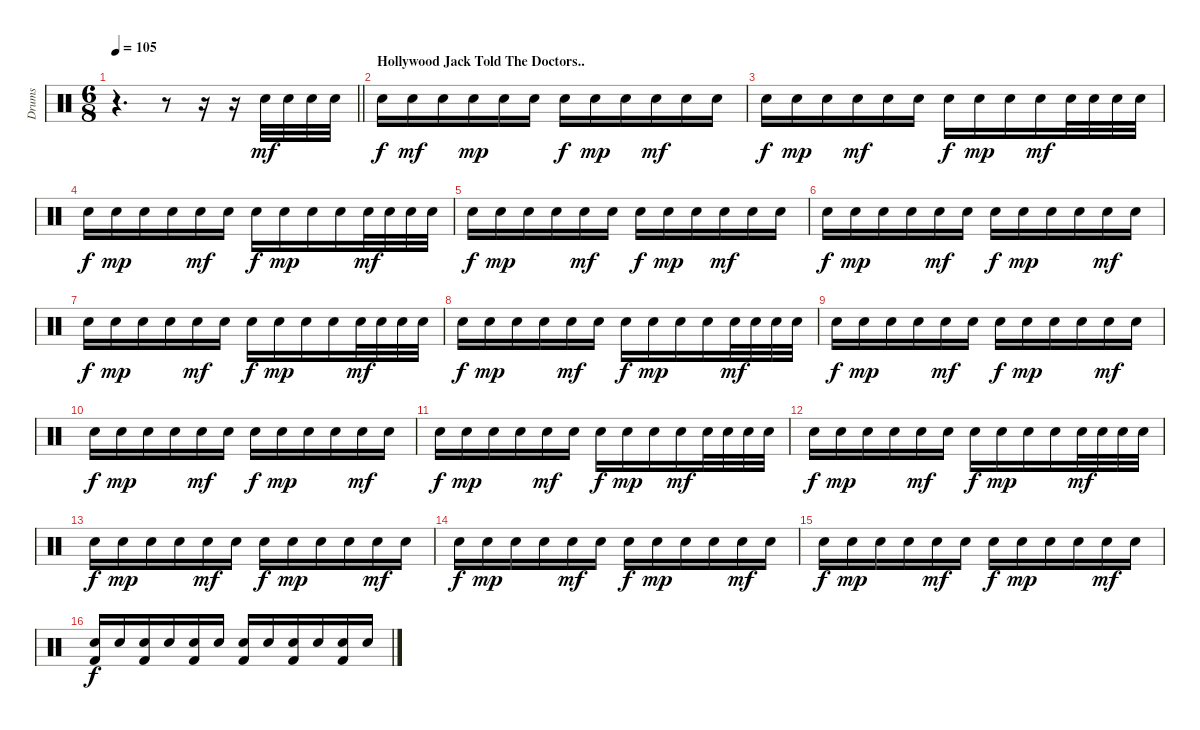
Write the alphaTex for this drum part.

\track ("Drums" "Drums") {instrument percussion}
\staff {score}
\articulation defaults
\ts (6 8)
\tempo 105
\clef neutral
\barLineRight lightlight
\ks c
r.4{d dy f} r.8 r.16 r.16 "Electric Snare (hit)".32{dy mf} "Electric Snare (hit)".32 "Electric Snare (hit)".32 "Electric Snare (hit)".32 |
\section ("" "Hollywood Jack Told The Doctors..")
"Electric Snare (hit)".16{dy f volume 7} "Electric Snare (hit)".16{dy mf} "Electric Snare (hit)".16 "Electric Snare (hit)".16{dy mp} "Electric Snare (hit)".16 "Electric Snare (hit)".16 "Electric Snare (hit)".16{dy f} "Electric Snare (hit)".16{dy mp} "Electric Snare (hit)".16 "Electric Snare (hit)".16{dy mf} "Electric Snare (hit)".16 "Electric Snare (hit)".16 |
"Electric Snare (hit)".16{dy f} "Electric Snare (hit)".16{dy mp} "Electric Snare (hit)".16 "Electric Snare (hit)".16{dy mf} "Electric Snare (hit)".16 "Electric Snare (hit)".16 "Electric Snare (hit)".16{dy f} "Electric Snare (hit)".16{dy mp} "Electric Snare (hit)".16 "Electric Snare (hit)".16{dy mf} "Electric Snare (hit)".32 "Electric Snare (hit)".32 "Electric Snare (hit)".32 "Electric Snare (hit)".32 |
"Electric Snare (hit)".16{dy f} "Electric Snare (hit)".16{dy mp} "Electric Snare (hit)".16 "Electric Snare (hit)".16 "Electric Snare (hit)".16{dy mf} "Electric Snare (hit)".16 "Electric Snare (hit)".16{dy f} "Electric Snare (hit)".16{dy mp} "Electric Snare (hit)".16 "Electric Snare (hit)".16 "Electric Snare (hit)".32{dy mf} "Electric Snare (hit)".32 "Electric Snare (hit)".32 "Electric Snare (hit)".32 |
"Electric Snare (hit)".16{dy f} "Electric Snare (hit)".16{dy mp} "Electric Snare (hit)".16 "Electric Snare (hit)".16 "Electric Snare (hit)".16{dy mf} "Electric Snare (hit)".16 "Electric Snare (hit)".16{dy f} "Electric Snare (hit)".16{dy mp} "Electric Snare (hit)".16 "Electric Snare (hit)".16{dy mf} "Electric Snare (hit)".16 "Electric Snare (hit)".16 |
"Electric Snare (hit)".16{dy f} "Electric Snare (hit)".16{dy mp} "Electric Snare (hit)".16 "Electric Snare (hit)".16 "Electric Snare (hit)".16{dy mf} "Electric Snare (hit)".16 "Electric Snare (hit)".16{dy f} "Electric Snare (hit)".16{dy mp} "Electric Snare (hit)".16 "Electric Snare (hit)".16 "Electric Snare (hit)".16{dy mf} "Electric Snare (hit)".16 |
"Electric Snare (hit)".16{dy f} "Electric Snare (hit)".16{dy mp} "Electric Snare (hit)".16 "Electric Snare (hit)".16 "Electric Snare (hit)".16{dy mf} "Electric Snare (hit)".16 "Electric Snare (hit)".16{dy f volume 13} "Electric Snare (hit)".16{dy mp} "Electric Snare (hit)".16 "Electric Snare (hit)".16 "Electric Snare (hit)".32{dy mf} "Electric Snare (hit)".32 "Electric Snare (hit)".32 "Electric Snare (hit)".32 |
"Electric Snare (hit)".16{dy f} "Electric Snare (hit)".16{dy mp} "Electric Snare (hit)".16 "Electric Snare (hit)".16 "Electric Snare (hit)".16{dy mf} "Electric Snare (hit)".16 "Electric Snare (hit)".16{dy f} "Electric Snare (hit)".16{dy mp} "Electric Snare (hit)".16 "Electric Snare (hit)".16 "Electric Snare (hit)".32{dy mf} "Electric Snare (hit)".32 "Electric Snare (hit)".32 "Electric Snare (hit)".32 |
"Electric Snare (hit)".16{dy f} "Electric Snare (hit)".16{dy mp} "Electric Snare (hit)".16 "Electric Snare (hit)".16 "Electric Snare (hit)".16{dy mf} "Electric Snare (hit)".16 "Electric Snare (hit)".16{dy f} "Electric Snare (hit)".16{dy mp} "Electric Snare (hit)".16 "Electric Snare (hit)".16 "Electric Snare (hit)".16{dy mf} "Electric Snare (hit)".16 |
"Electric Snare (hit)".16{dy f} "Electric Snare (hit)".16{dy mp} "Electric Snare (hit)".16 "Electric Snare (hit)".16 "Electric Snare (hit)".16{dy mf} "Electric Snare (hit)".16 "Electric Snare (hit)".16{dy f} "Electric Snare (hit)".16{dy mp} "Electric Snare (hit)".16 "Electric Snare (hit)".16 "Electric Snare (hit)".16{dy mf} "Electric Snare (hit)".16 |
"Electric Snare (hit)".16{dy f} "Electric Snare (hit)".16{dy mp} "Electric Snare (hit)".16 "Electric Snare (hit)".16 "Electric Snare (hit)".16{dy mf} "Electric Snare (hit)".16 "Electric Snare (hit)".16{dy f} "Electric Snare (hit)".16{dy mp} "Electric Snare (hit)".16 "Electric Snare (hit)".16{dy mf} "Electric Snare (hit)".32 "Electric Snare (hit)".32 "Electric Snare (hit)".32 "Electric Snare (hit)".32 |
"Electric Snare (hit)".16{dy f} "Electric Snare (hit)".16{dy mp} "Electric Snare (hit)".16 "Electric Snare (hit)".16 "Electric Snare (hit)".16{dy mf} "Electric Snare (hit)".16 "Electric Snare (hit)".16{dy f} "Electric Snare (hit)".16{dy mp} "Electric Snare (hit)".16 "Electric Snare (hit)".16 "Electric Snare (hit)".32{dy mf} "Electric Snare (hit)".32 "Electric Snare (hit)".32 "Electric Snare (hit)".32 |
"Electric Snare (hit)".16{dy f} "Electric Snare (hit)".16{dy mp} "Electric Snare (hit)".16 "Electric Snare (hit)".16 "Electric Snare (hit)".16{dy mf} "Electric Snare (hit)".16 "Electric Snare (hit)".16{dy f} "Electric Snare (hit)".16{dy mp} "Electric Snare (hit)".16 "Electric Snare (hit)".16 "Electric Snare (hit)".16{dy mf} "Electric Snare (hit)".16 |
"Electric Snare (hit)".16{dy f} "Electric Snare (hit)".16{dy mp} "Electric Snare (hit)".16 "Electric Snare (hit)".16 "Electric Snare (hit)".16{dy mf} "Electric Snare (hit)".16 "Electric Snare (hit)".16{dy f} "Electric Snare (hit)".16{dy mp} "Electric Snare (hit)".16 "Electric Snare (hit)".16 "Electric Snare (hit)".16{dy mf} "Electric Snare (hit)".16 |
"Electric Snare (hit)".16{dy f} "Electric Snare (hit)".16{dy mp} "Electric Snare (hit)".16 "Electric Snare (hit)".16 "Electric Snare (hit)".16{dy mf} "Electric Snare (hit)".16 "Electric Snare (hit)".16{dy f} "Electric Snare (hit)".16{dy mp} "Electric Snare (hit)".16 "Electric Snare (hit)".16 "Electric Snare (hit)".16{dy mf} "Electric Snare (hit)".16 |
("Electric Snare (hit)" "Kick (hit) 2").16{dy f} "Electric Snare (hit)".16 ("Electric Snare (hit)" "Kick (hit) 2").16 "Electric Snare (hit)".16 ("Electric Snare (hit)" "Kick (hit) 2").16 "Electric Snare (hit)".16 ("Electric Snare (hit)" "Kick (hit) 2").16 "Electric Snare (hit)".16 ("Electric Snare (hit)" "Kick (hit) 2").16 "Electric Snare (hit)".16 ("Electric Snare (hit)" "Kick (hit) 2").16 "Electric Snare (hit)".16
